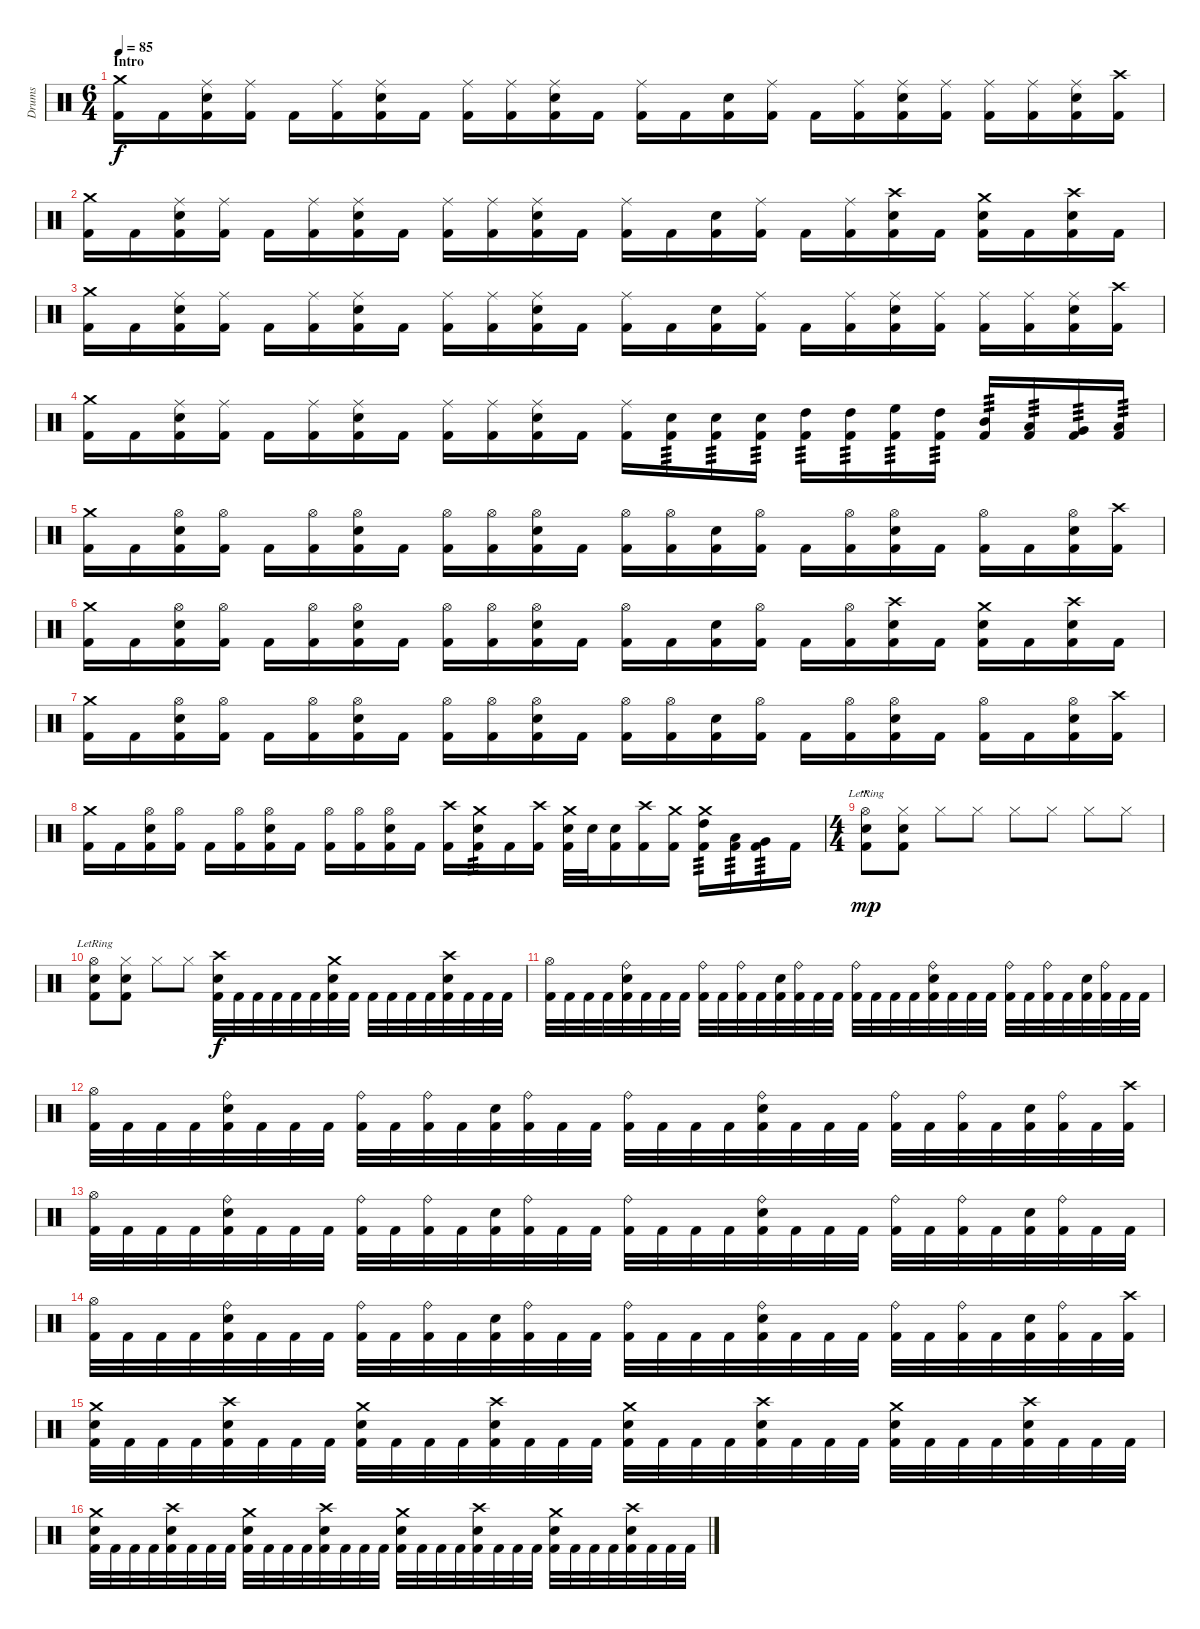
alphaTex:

\track ("Drums" "Drums") {instrument percussion}
\staff {score}
\articulation defaults
\ts (6 4)
\section ("" "Intro")
\tempo 85
\clef neutral
\ks c
("Crash medium (hit)" "Kick (hit) 2").16{dy f} "Kick (hit) 2".16 ("Ride (middle)" "Snare (hit) 2" "Kick (hit) 2").16 ("Ride (middle)" "Kick (hit) 2").16 "Kick (hit) 2".16 ("Ride (middle)" "Kick (hit) 2").16 ("Ride (middle)" "Snare (hit) 2" "Kick (hit) 2").16 "Kick (hit) 2".16 ("Ride (middle)" "Kick (hit) 2").16 ("Ride (middle)" "Kick (hit) 2").16 ("Ride (middle)" "Snare (hit) 2" "Kick (hit) 2").16 "Kick (hit) 2".16 ("Ride (middle)" "Kick (hit) 2").16 "Kick (hit) 2".16 ("Snare (hit) 2" "Kick (hit) 2").16 ("Ride (middle)" "Kick (hit) 2").16 "Kick (hit) 2".16 ("Ride (middle)" "Kick (hit) 2").16 ("Ride (middle)" "Snare (hit) 2" "Kick (hit) 2").16 ("Ride (middle)" "Kick (hit) 2").16 ("Ride (middle)" "Kick (hit) 2").16 ("Ride (middle)" "Kick (hit) 2").16 ("Ride (middle)" "Snare (hit) 2" "Kick (hit) 2").16 ("Crash high (hit)" "Kick (hit) 2").16 |
("Crash medium (hit)" "Kick (hit) 2").16 "Kick (hit) 2".16 ("Ride (middle)" "Snare (hit) 2" "Kick (hit) 2").16 ("Ride (middle)" "Kick (hit) 2").16 "Kick (hit) 2".16 ("Ride (middle)" "Kick (hit) 2").16 ("Ride (middle)" "Snare (hit) 2" "Kick (hit) 2").16 "Kick (hit) 2".16 ("Ride (middle)" "Kick (hit) 2").16 ("Ride (middle)" "Kick (hit) 2").16 ("Ride (middle)" "Snare (hit) 2" "Kick (hit) 2").16 "Kick (hit) 2".16 ("Ride (middle)" "Kick (hit) 2").16 "Kick (hit) 2".16 ("Snare (hit) 2" "Kick (hit) 2").16 ("Ride (middle)" "Kick (hit) 2").16 "Kick (hit) 2".16 ("Ride (middle)" "Kick (hit) 2").16 ("Crash high (hit)" "Snare (hit) 2" "Kick (hit) 2").16 "Kick (hit) 2".16 ("Crash medium (hit)" "Snare (hit) 2" "Kick (hit) 2").16 "Kick (hit) 2".16 ("Crash high (hit)" "Snare (hit) 2" "Kick (hit) 2").16 "Kick (hit) 2".16 |
("Crash medium (hit)" "Kick (hit) 2").16 "Kick (hit) 2".16 ("Ride (middle)" "Snare (hit) 2" "Kick (hit) 2").16 ("Ride (middle)" "Kick (hit) 2").16 "Kick (hit) 2".16 ("Ride (middle)" "Kick (hit) 2").16 ("Ride (middle)" "Snare (hit) 2" "Kick (hit) 2").16 "Kick (hit) 2".16 ("Ride (middle)" "Kick (hit) 2").16 ("Ride (middle)" "Kick (hit) 2").16 ("Ride (middle)" "Snare (hit) 2" "Kick (hit) 2").16 "Kick (hit) 2".16 ("Ride (middle)" "Kick (hit) 2").16 "Kick (hit) 2".16 ("Snare (hit) 2" "Kick (hit) 2").16 ("Ride (middle)" "Kick (hit) 2").16 "Kick (hit) 2".16 ("Ride (middle)" "Kick (hit) 2").16 ("Ride (middle)" "Snare (hit) 2" "Kick (hit) 2").16 ("Ride (middle)" "Kick (hit) 2").16 ("Ride (middle)" "Kick (hit) 2").16 ("Ride (middle)" "Kick (hit) 2").16 ("Ride (middle)" "Snare (hit) 2" "Kick (hit) 2").16 ("Crash high (hit)" "Kick (hit) 2").16 |
("Crash medium (hit)" "Kick (hit) 2").16 "Kick (hit) 2".16 ("Ride (middle)" "Snare (hit) 2" "Kick (hit) 2").16 ("Ride (middle)" "Kick (hit) 2").16 "Kick (hit) 2".16 ("Ride (middle)" "Kick (hit) 2").16 ("Ride (middle)" "Snare (hit) 2" "Kick (hit) 2").16 "Kick (hit) 2".16 ("Ride (middle)" "Kick (hit) 2").16 ("Ride (middle)" "Kick (hit) 2").16 ("Ride (middle)" "Snare (hit) 2" "Kick (hit) 2").16 "Kick (hit) 2".16 ("Ride (middle)" "Kick (hit) 2").16 ("Electric Snare (hit)" "Kick (hit) 2").16{tp 3} ("Electric Snare (hit)" "Kick (hit) 2").16{tp 3} ("Electric Snare (hit)" "Kick (hit) 2").16{tp 3} ("High Tom (hit)" "Kick (hit) 2").16{tp 3} ("High Tom (hit)" "Kick (hit) 2").16{tp 3} ("High Floor Tom (hit)" "Kick (hit) 2").16{tp 3} ("High Tom (hit)" "Kick (hit) 2").16{tp 3} ("Mid Tom (hit)" "Kick (hit) 2").16{tp 3} ("Low Tom (hit)" "Kick (hit) 2").16{tp 3} ("Very Low Tom (hit)" "Kick (hit) 2").16{tp 3} ("Low Floor Tom (hit)" "Kick (hit) 2").16{tp 3} |
("Crash medium (hit)" "Kick (hit) 2").16 "Kick (hit) 2".16 ("Hi-Hat (open)" "Snare (hit) 2" "Kick (hit) 2").16 ("Hi-Hat (open)" "Kick (hit) 2").16 "Kick (hit) 2".16 ("Hi-Hat (open)" "Kick (hit) 2").16 ("Hi-Hat (open)" "Snare (hit) 2" "Kick (hit) 2").16 "Kick (hit) 2".16 ("Hi-Hat (open)" "Kick (hit) 2").16 ("Hi-Hat (open)" "Kick (hit) 2").16 ("Hi-Hat (open)" "Snare (hit) 2" "Kick (hit) 2").16 "Kick (hit) 2".16 ("Hi-Hat (open)" "Kick (hit) 2").16 ("Hi-Hat (open)" "Kick (hit) 2").16 ("Snare (hit) 2" "Kick (hit) 2").16 ("Hi-Hat (open)" "Kick (hit) 2").16 "Kick (hit) 2".16 ("Hi-Hat (open)" "Kick (hit) 2").16 ("Hi-Hat (open)" "Snare (hit) 2" "Kick (hit) 2").16 "Kick (hit) 2".16 ("Hi-Hat (open)" "Kick (hit) 2").16 "Kick (hit) 2".16 ("Hi-Hat (open)" "Snare (hit) 2" "Kick (hit) 2").16 ("Crash high (hit)" "Kick (hit) 2").16 |
("Crash medium (hit)" "Kick (hit) 2").16 "Kick (hit) 2".16 ("Hi-Hat (open)" "Snare (hit) 2" "Kick (hit) 2").16 ("Hi-Hat (open)" "Kick (hit) 2").16 "Kick (hit) 2".16 ("Hi-Hat (open)" "Kick (hit) 2").16 ("Hi-Hat (open)" "Snare (hit) 2" "Kick (hit) 2").16 "Kick (hit) 2".16 ("Hi-Hat (open)" "Kick (hit) 2").16 ("Hi-Hat (open)" "Kick (hit) 2").16 ("Hi-Hat (open)" "Snare (hit) 2" "Kick (hit) 2").16 "Kick (hit) 2".16 ("Hi-Hat (open)" "Kick (hit) 2").16 "Kick (hit) 2".16 ("Snare (hit) 2" "Kick (hit) 2").16 ("Hi-Hat (open)" "Kick (hit) 2").16 "Kick (hit) 2".16 ("Hi-Hat (open)" "Kick (hit) 2").16 ("Crash high (hit)" "Snare (hit) 2" "Kick (hit) 2").16 "Kick (hit) 2".16 ("Crash medium (hit)" "Snare (hit) 2" "Kick (hit) 2").16 "Kick (hit) 2".16 ("Crash high (hit)" "Snare (hit) 2" "Kick (hit) 2").16 "Kick (hit) 2".16 |
("Crash medium (hit)" "Kick (hit) 2").16 "Kick (hit) 2".16 ("Hi-Hat (open)" "Snare (hit) 2" "Kick (hit) 2").16 ("Hi-Hat (open)" "Kick (hit) 2").16 "Kick (hit) 2".16 ("Hi-Hat (open)" "Kick (hit) 2").16 ("Hi-Hat (open)" "Snare (hit) 2" "Kick (hit) 2").16 "Kick (hit) 2".16 ("Hi-Hat (open)" "Kick (hit) 2").16 ("Hi-Hat (open)" "Kick (hit) 2").16 ("Hi-Hat (open)" "Snare (hit) 2" "Kick (hit) 2").16 "Kick (hit) 2".16 ("Hi-Hat (open)" "Kick (hit) 2").16 ("Hi-Hat (open)" "Kick (hit) 2").16 ("Snare (hit) 2" "Kick (hit) 2").16 ("Hi-Hat (open)" "Kick (hit) 2").16 "Kick (hit) 2".16 ("Hi-Hat (open)" "Kick (hit) 2").16 ("Hi-Hat (open)" "Snare (hit) 2" "Kick (hit) 2").16 "Kick (hit) 2".16 ("Hi-Hat (open)" "Kick (hit) 2").16 "Kick (hit) 2".16 ("Hi-Hat (open)" "Snare (hit) 2" "Kick (hit) 2").16 ("Crash high (hit)" "Kick (hit) 2").16 |
("Crash medium (hit)" "Kick (hit) 2").16 "Kick (hit) 2".16 ("Hi-Hat (open)" "Snare (hit) 2" "Kick (hit) 2").16 ("Hi-Hat (open)" "Kick (hit) 2").16 "Kick (hit) 2".16 ("Hi-Hat (open)" "Kick (hit) 2").16 ("Hi-Hat (open)" "Snare (hit) 2" "Kick (hit) 2").16 "Kick (hit) 2".16 ("Hi-Hat (open)" "Kick (hit) 2").16 ("Hi-Hat (open)" "Kick (hit) 2").16 ("Hi-Hat (open)" "Snare (hit) 2" "Kick (hit) 2").16 "Kick (hit) 2".16 ("Crash high (hit)" "Kick (hit) 2").16 ("Crash medium (hit)" "Snare (hit) 2" "Kick (hit) 2").16{tp 3} "Kick (hit) 2".16 ("Crash high (hit)" "Kick (hit) 2").16 ("Crash medium (hit)" "Snare (hit) 2" "Kick (hit) 2").32 "Snare (hit) 2".32 ("Snare (hit) 2" "Kick (hit) 2").16 ("Crash high (hit)" "Kick (hit) 2").16 ("Crash medium (hit)" "Kick (hit) 2").16 ("Crash medium (hit)" "High Tom (hit)" "Kick (hit) 2").16{tp 3} ("Low Tom (hit)" "Kick (hit) 2").16{tp 3} ("Very Low Tom (hit)" "Kick (hit) 2").16{tp 3} "Kick (hit) 2".16 |
\ts (4 4)
\section ("" "..")
("Hi-Hat (open)"{lr} "Snare (hit) 2" "Kick (hit) 2").8{dy mp} ("Hi-Hat (closed)" "Snare (hit) 2" "Kick (hit) 2").8 "Hi-Hat (closed)".8 "Hi-Hat (closed)".8 "Hi-Hat (closed)".8 "Hi-Hat (closed)".8 "Hi-Hat (closed)".8 "Hi-Hat (closed)".8 |
("Hi-Hat (open)"{lr} "Snare (hit) 2" "Kick (hit) 2").8 ("Hi-Hat (closed)" "Snare (hit) 2" "Kick (hit) 2").8 "Hi-Hat (closed)".8 "Hi-Hat (closed)".8 ("Crash high (hit)" "Snare (hit) 2" "Kick (hit) 2").32{dy f} "Kick (hit) 2".32 "Kick (hit) 2".32 "Kick (hit) 2".32 "Kick (hit) 2".32 "Kick (hit) 2".32 ("Crash medium (hit)" "Snare (hit) 2" "Kick (hit) 2").32 "Kick (hit) 2".32 "Kick (hit) 2".32 "Kick (hit) 2".32 "Kick (hit) 2".32 "Kick (hit) 2".32 ("Crash high (hit)" "Snare (hit) 2" "Kick (hit) 2").32 "Kick (hit) 2".32 "Kick (hit) 2".32 "Kick (hit) 2".32 |
("Hi-Hat (open)" "Kick (hit) 2").32 "Kick (hit) 2".32 "Kick (hit) 2".32 "Kick (hit) 2".32 ("Ride (bell)" "Snare (hit) 2" "Kick (hit) 2").32 "Kick (hit) 2".32 "Kick (hit) 2".32 "Kick (hit) 2".32 ("Ride (bell)" "Kick (hit) 2").32 "Kick (hit) 2".32 ("Ride (bell)" "Kick (hit) 2").32 "Kick (hit) 2".32 ("Snare (hit) 2" "Kick (hit) 2").32 ("Ride (bell)" "Kick (hit) 2").32 "Kick (hit) 2".32 "Kick (hit) 2".32 ("Ride (bell)" "Kick (hit) 2").32 "Kick (hit) 2".32 "Kick (hit) 2".32 "Kick (hit) 2".32 ("Ride (bell)" "Snare (hit) 2" "Kick (hit) 2").32 "Kick (hit) 2".32 "Kick (hit) 2".32 "Kick (hit) 2".32 ("Ride (bell)" "Kick (hit) 2").32 "Kick (hit) 2".32 ("Ride (bell)" "Kick (hit) 2").32 "Kick (hit) 2".32 ("Snare (hit) 2" "Kick (hit) 2").32 ("Ride (bell)" "Kick (hit) 2").32 "Kick (hit) 2".32 "Kick (hit) 2".32 |
("Hi-Hat (open)" "Kick (hit) 2").32 "Kick (hit) 2".32 "Kick (hit) 2".32 "Kick (hit) 2".32 ("Ride (bell)" "Snare (hit) 2" "Kick (hit) 2").32 "Kick (hit) 2".32 "Kick (hit) 2".32 "Kick (hit) 2".32 ("Ride (bell)" "Kick (hit) 2").32 "Kick (hit) 2".32 ("Ride (bell)" "Kick (hit) 2").32 "Kick (hit) 2".32 ("Snare (hit) 2" "Kick (hit) 2").32 ("Ride (bell)" "Kick (hit) 2").32 "Kick (hit) 2".32 "Kick (hit) 2".32 ("Ride (bell)" "Kick (hit) 2").32 "Kick (hit) 2".32 "Kick (hit) 2".32 "Kick (hit) 2".32 ("Ride (bell)" "Snare (hit) 2" "Kick (hit) 2").32 "Kick (hit) 2".32 "Kick (hit) 2".32 "Kick (hit) 2".32 ("Ride (bell)" "Kick (hit) 2").32 "Kick (hit) 2".32 ("Ride (bell)" "Kick (hit) 2").32 "Kick (hit) 2".32 ("Snare (hit) 2" "Kick (hit) 2").32 ("Ride (bell)" "Kick (hit) 2").32 "Kick (hit) 2".32 ("Crash high (hit)" "Kick (hit) 2").32 |
("Hi-Hat (open)" "Kick (hit) 2").32 "Kick (hit) 2".32 "Kick (hit) 2".32 "Kick (hit) 2".32 ("Ride (bell)" "Snare (hit) 2" "Kick (hit) 2").32 "Kick (hit) 2".32 "Kick (hit) 2".32 "Kick (hit) 2".32 ("Ride (bell)" "Kick (hit) 2").32 "Kick (hit) 2".32 ("Ride (bell)" "Kick (hit) 2").32 "Kick (hit) 2".32 ("Snare (hit) 2" "Kick (hit) 2").32 ("Ride (bell)" "Kick (hit) 2").32 "Kick (hit) 2".32 "Kick (hit) 2".32 ("Ride (bell)" "Kick (hit) 2").32 "Kick (hit) 2".32 "Kick (hit) 2".32 "Kick (hit) 2".32 ("Ride (bell)" "Snare (hit) 2" "Kick (hit) 2").32 "Kick (hit) 2".32 "Kick (hit) 2".32 "Kick (hit) 2".32 ("Ride (bell)" "Kick (hit) 2").32 "Kick (hit) 2".32 ("Ride (bell)" "Kick (hit) 2").32 "Kick (hit) 2".32 ("Snare (hit) 2" "Kick (hit) 2").32 ("Ride (bell)" "Kick (hit) 2").32 "Kick (hit) 2".32 "Kick (hit) 2".32 |
("Hi-Hat (open)" "Kick (hit) 2").32 "Kick (hit) 2".32 "Kick (hit) 2".32 "Kick (hit) 2".32 ("Ride (bell)" "Snare (hit) 2" "Kick (hit) 2").32 "Kick (hit) 2".32 "Kick (hit) 2".32 "Kick (hit) 2".32 ("Ride (bell)" "Kick (hit) 2").32 "Kick (hit) 2".32 ("Ride (bell)" "Kick (hit) 2").32 "Kick (hit) 2".32 ("Snare (hit) 2" "Kick (hit) 2").32 ("Ride (bell)" "Kick (hit) 2").32 "Kick (hit) 2".32 "Kick (hit) 2".32 ("Ride (bell)" "Kick (hit) 2").32 "Kick (hit) 2".32 "Kick (hit) 2".32 "Kick (hit) 2".32 ("Ride (bell)" "Snare (hit) 2" "Kick (hit) 2").32 "Kick (hit) 2".32 "Kick (hit) 2".32 "Kick (hit) 2".32 ("Ride (bell)" "Kick (hit) 2").32 "Kick (hit) 2".32 ("Ride (bell)" "Kick (hit) 2").32 "Kick (hit) 2".32 ("Snare (hit) 2" "Kick (hit) 2").32 ("Ride (bell)" "Kick (hit) 2").32 "Kick (hit) 2".32 ("Crash high (hit)" "Kick (hit) 2").32 |
("Crash medium (hit)" "Snare (hit) 2" "Kick (hit) 2").32 "Kick (hit) 2".32 "Kick (hit) 2".32 "Kick (hit) 2".32 ("Crash high (hit)" "Snare (hit) 2" "Kick (hit) 2").32 "Kick (hit) 2".32 "Kick (hit) 2".32 "Kick (hit) 2".32 ("Crash medium (hit)" "Snare (hit) 2" "Kick (hit) 2").32 "Kick (hit) 2".32 "Kick (hit) 2".32 "Kick (hit) 2".32 ("Crash high (hit)" "Snare (hit) 2" "Kick (hit) 2").32 "Kick (hit) 2".32 "Kick (hit) 2".32 "Kick (hit) 2".32 ("Crash medium (hit)" "Snare (hit) 2" "Kick (hit) 2").32 "Kick (hit) 2".32 "Kick (hit) 2".32 "Kick (hit) 2".32 ("Crash high (hit)" "Snare (hit) 2" "Kick (hit) 2").32 "Kick (hit) 2".32 "Kick (hit) 2".32 "Kick (hit) 2".32 ("Crash medium (hit)" "Snare (hit) 2" "Kick (hit) 2").32 "Kick (hit) 2".32 "Kick (hit) 2".32 "Kick (hit) 2".32 ("Crash high (hit)" "Snare (hit) 2" "Kick (hit) 2").32 "Kick (hit) 2".32 "Kick (hit) 2".32 "Kick (hit) 2".32 |
("Crash medium (hit)" "Snare (hit) 2" "Kick (hit) 2").32 "Kick (hit) 2".32 "Kick (hit) 2".32 "Kick (hit) 2".32 ("Crash high (hit)" "Snare (hit) 2" "Kick (hit) 2").32 "Kick (hit) 2".32 "Kick (hit) 2".32 "Kick (hit) 2".32 ("Crash medium (hit)" "Snare (hit) 2" "Kick (hit) 2").32 "Kick (hit) 2".32 "Kick (hit) 2".32 "Kick (hit) 2".32 ("Crash high (hit)" "Snare (hit) 2" "Kick (hit) 2").32 "Kick (hit) 2".32 "Kick (hit) 2".32 "Kick (hit) 2".32 ("Crash medium (hit)" "Snare (hit) 2" "Kick (hit) 2").32 "Kick (hit) 2".32 "Kick (hit) 2".32 "Kick (hit) 2".32 ("Crash high (hit)" "Snare (hit) 2" "Kick (hit) 2").32 "Kick (hit) 2".32 "Kick (hit) 2".32 "Kick (hit) 2".32 ("Crash medium (hit)" "Snare (hit) 2" "Kick (hit) 2").32 "Kick (hit) 2".32 "Kick (hit) 2".32 "Kick (hit) 2".32 ("Crash high (hit)" "Snare (hit) 2" "Kick (hit) 2").32 "Kick (hit) 2".32 "Kick (hit) 2".32 "Kick (hit) 2".32
